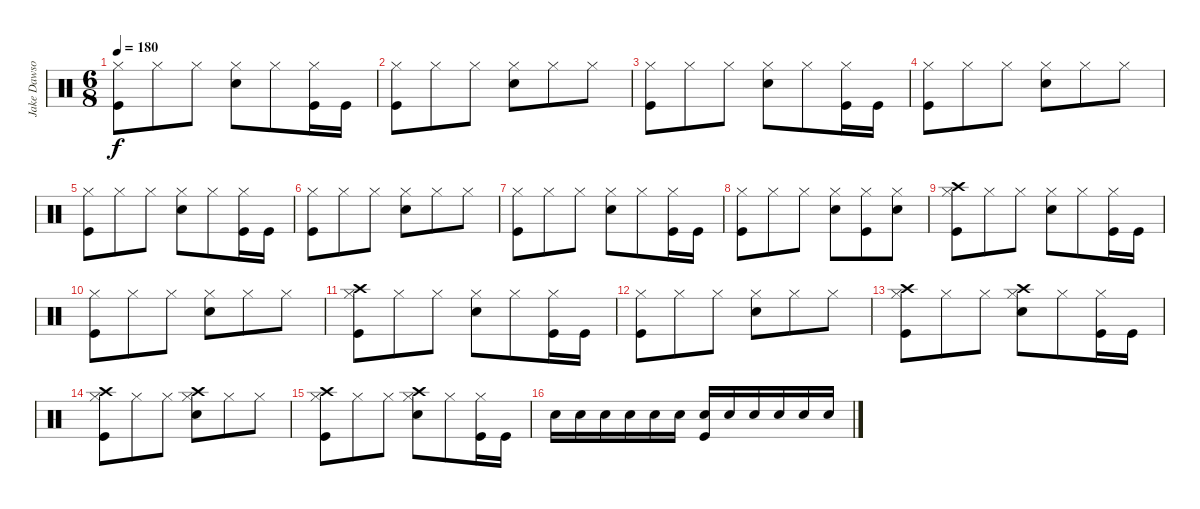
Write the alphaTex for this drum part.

\track ("Jake Dawson" "Jake Dawso") {instrument percussion}
\staff {score}
\articulation defaults
\ts (6 8)
\tempo 180
\clef neutral
\ks c
("Hi-Hat (closed)" "Kick (hit)").8{dy f} "Hi-Hat (closed)".8 "Hi-Hat (closed)".8 ("Hi-Hat (closed)" "Snare (hit) 2").8 "Hi-Hat (closed)".8 ("Hi-Hat (closed)" "Kick (hit)").16 "Kick (hit)".16 |
("Hi-Hat (closed)" "Kick (hit)").8 "Hi-Hat (closed)".8 "Hi-Hat (closed)".8 ("Hi-Hat (closed)" "Snare (hit) 2").8 "Hi-Hat (closed)".8 "Hi-Hat (closed)".8 |
("Hi-Hat (closed)" "Kick (hit)").8 "Hi-Hat (closed)".8 "Hi-Hat (closed)".8 ("Hi-Hat (closed)" "Snare (hit) 2").8 "Hi-Hat (closed)".8 ("Hi-Hat (closed)" "Kick (hit)").16 "Kick (hit)".16 |
("Hi-Hat (closed)" "Kick (hit)").8 "Hi-Hat (closed)".8 "Hi-Hat (closed)".8 ("Hi-Hat (closed)" "Snare (hit) 2").8 "Hi-Hat (closed)".8 "Hi-Hat (closed)".8 |
("Hi-Hat (closed)" "Kick (hit)").8 "Hi-Hat (closed)".8 "Hi-Hat (closed)".8 ("Hi-Hat (closed)" "Snare (hit) 2").8 "Hi-Hat (closed)".8 ("Hi-Hat (closed)" "Kick (hit)").16 "Kick (hit)".16 |
("Hi-Hat (closed)" "Kick (hit)").8 "Hi-Hat (closed)".8 "Hi-Hat (closed)".8 ("Hi-Hat (closed)" "Snare (hit) 2").8 "Hi-Hat (closed)".8 "Hi-Hat (closed)".8 |
("Hi-Hat (closed)" "Kick (hit)").8 "Hi-Hat (closed)".8 "Hi-Hat (closed)".8 ("Hi-Hat (closed)" "Snare (hit) 2").8 "Hi-Hat (closed)".8 ("Hi-Hat (closed)" "Kick (hit)").16 "Kick (hit)".16 |
("Hi-Hat (closed)" "Kick (hit)").8 "Hi-Hat (closed)".8 "Hi-Hat (closed)".8 ("Hi-Hat (closed)" "Snare (hit) 2").8 ("Hi-Hat (closed)" "Kick (hit)").8 ("Hi-Hat (closed)" "Snare (hit) 2").8 |
("Crash high (hit)" "Hi-Hat (closed)" "Kick (hit)").8 "Hi-Hat (closed)".8 "Hi-Hat (closed)".8 ("Hi-Hat (closed)" "Snare (hit) 2").8 "Hi-Hat (closed)".8 ("Hi-Hat (closed)" "Kick (hit)").16 "Kick (hit)".16 |
("Hi-Hat (closed)" "Kick (hit)").8 "Hi-Hat (closed)".8 "Hi-Hat (closed)".8 ("Hi-Hat (closed)" "Snare (hit) 2").8 "Hi-Hat (closed)".8 "Hi-Hat (closed)".8 |
("Crash high (hit)" "Hi-Hat (closed)" "Kick (hit)").8 "Hi-Hat (closed)".8 "Hi-Hat (closed)".8 ("Hi-Hat (closed)" "Snare (hit) 2").8 "Hi-Hat (closed)".8 ("Hi-Hat (closed)" "Kick (hit)").16 "Kick (hit)".16 |
("Hi-Hat (closed)" "Kick (hit)").8 "Hi-Hat (closed)".8 "Hi-Hat (closed)".8 ("Hi-Hat (closed)" "Snare (hit) 2").8 "Hi-Hat (closed)".8 "Hi-Hat (closed)".8 |
("Crash high (hit)" "Hi-Hat (closed)" "Kick (hit)").8 "Hi-Hat (closed)".8 "Hi-Hat (closed)".8 ("Crash high (hit)" "Hi-Hat (closed)" "Snare (hit) 2").8 "Hi-Hat (closed)".8 ("Hi-Hat (closed)" "Kick (hit)").16 "Kick (hit)".16 |
("Crash high (hit)" "Hi-Hat (closed)" "Kick (hit)").8 "Hi-Hat (closed)".8 "Hi-Hat (closed)".8 ("Crash high (hit)" "Hi-Hat (closed)" "Snare (hit) 2").8 "Hi-Hat (closed)".8 "Hi-Hat (closed)".8 |
("Crash high (hit)" "Hi-Hat (closed)" "Kick (hit)").8 "Hi-Hat (closed)".8 "Hi-Hat (closed)".8 ("Crash high (hit)" "Hi-Hat (closed)" "Snare (hit) 2").8 "Hi-Hat (closed)".8 ("Hi-Hat (closed)" "Kick (hit)").16 "Kick (hit)".16 |
"Snare (hit) 2".16 "Snare (hit) 2".16 "Snare (hit) 2".16 "Snare (hit) 2".16 "Snare (hit) 2".16 "Snare (hit) 2".16 ("Snare (hit) 2" "Kick (hit)").16 "Snare (hit) 2".16 "Snare (hit) 2".16 "Snare (hit) 2".16 "Snare (hit) 2".16 "Snare (hit) 2".16
